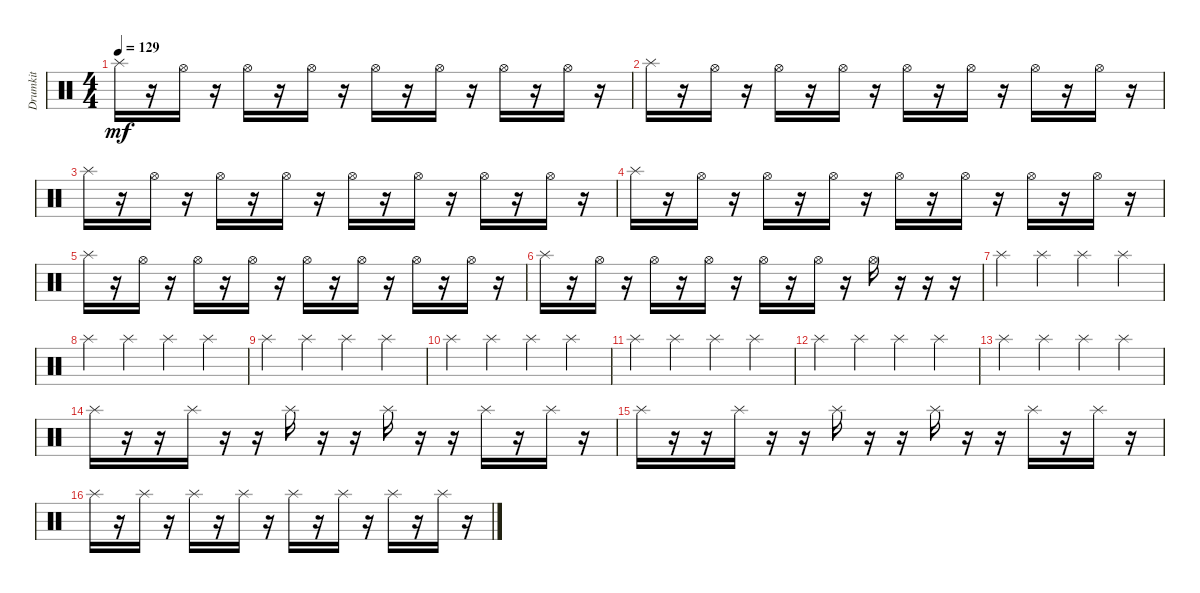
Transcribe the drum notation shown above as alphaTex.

\track ("Drumkit" "Drumkit") {instrument percussion}
\staff {score}
\articulation defaults
\ts (4 4)
\tempo 129
\clef neutral
\ks c "Splash (hit)".16{dy mf}
r.16 "Hi-Hat (open)".16 r.16 "Hi-Hat (open)".16 r.16 "Hi-Hat (open)".16 r.16 "Hi-Hat (open)".16 r.16 "Hi-Hat (open)".16 r.16 "Hi-Hat (open)".16 r.16 "Hi-Hat (open)".16 r.16 |
"Splash (hit)".16 r.16 "Hi-Hat (open)".16 r.16 "Hi-Hat (open)".16 r.16 "Hi-Hat (open)".16 r.16 "Hi-Hat (open)".16 r.16 "Hi-Hat (open)".16 r.16 "Hi-Hat (open)".16 r.16 "Hi-Hat (open)".16 r.16 |
"Splash (hit)".16 r.16 "Hi-Hat (open)".16 r.16 "Hi-Hat (open)".16 r.16 "Hi-Hat (open)".16 r.16 "Hi-Hat (open)".16 r.16 "Hi-Hat (open)".16 r.16 "Hi-Hat (open)".16 r.16 "Hi-Hat (open)".16 r.16 |
"Splash (hit)".16 r.16 "Hi-Hat (open)".16 r.16 "Hi-Hat (open)".16 r.16 "Hi-Hat (open)".16 r.16 "Hi-Hat (open)".16 r.16 "Hi-Hat (open)".16 r.16 "Hi-Hat (open)".16 r.16 "Hi-Hat (open)".16 r.16 |
"Splash (hit)".16 r.16 "Hi-Hat (open)".16 r.16 "Hi-Hat (open)".16 r.16 "Hi-Hat (open)".16 r.16 "Hi-Hat (open)".16 r.16 "Hi-Hat (open)".16 r.16 "Hi-Hat (open)".16 r.16 "Hi-Hat (open)".16 r.16 |
"Splash (hit)".16 r.16 "Hi-Hat (open)".16 r.16 "Hi-Hat (open)".16 r.16 "Hi-Hat (open)".16 r.16 "Hi-Hat (open)".16 r.16 "Hi-Hat (open)".16 r.16 "Hi-Hat (open)".16 r.16 r.16 r.16 |
"Splash (hit)".4 "Splash (hit)".4 "Splash (hit)".4 "Splash (hit)".4 |
"Splash (hit)".4 "Splash (hit)".4 "Splash (hit)".4 "Splash (hit)".4 |
"Splash (hit)".4 "Splash (hit)".4 "Splash (hit)".4 "Splash (hit)".4 |
"Splash (hit)".4 "Splash (hit)".4 "Splash (hit)".4 "Splash (hit)".4 |
"Splash (hit)".4 "Splash (hit)".4 "Splash (hit)".4 "Splash (hit)".4 |
"Splash (hit)".4 "Splash (hit)".4 "Splash (hit)".4 "Splash (hit)".4 |
"Splash (hit)".4 "Splash (hit)".4 "Splash (hit)".4 "Splash (hit)".4 |
"Splash (hit)".16 r.16 r.16 "Splash (hit)".16 r.16 r.16 "Splash (hit)".16 r.16 r.16 "Splash (hit)".16 r.16 r.16 "Splash (hit)".16 r.16 "Splash (hit)".16 r.16 |
"Splash (hit)".16 r.16 r.16 "Splash (hit)".16 r.16 r.16 "Splash (hit)".16 r.16 r.16 "Splash (hit)".16 r.16 r.16 "Splash (hit)".16 r.16 "Splash (hit)".16 r.16 |
"Splash (hit)".16 r.16 "Splash (hit)".16 r.16 "Splash (hit)".16 r.16 "Splash (hit)".16 r.16 "Splash (hit)".16 r.16 "Splash (hit)".16 r.16 "Splash (hit)".16 r.16 "Splash (hit)".16 r.16
